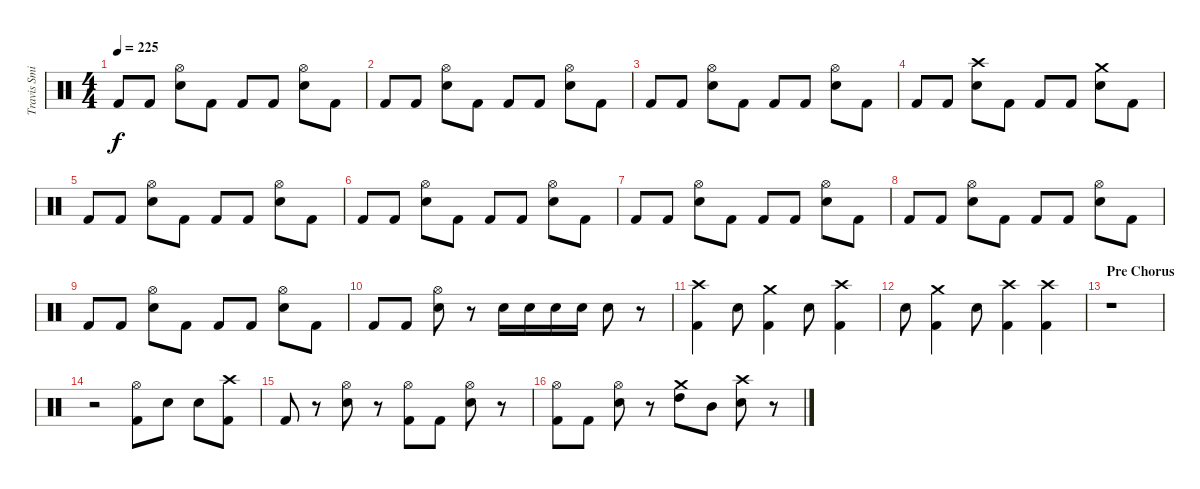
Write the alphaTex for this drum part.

\track ("Travis Smith" "Travis Smi") {instrument percussion}
\staff {score}
\articulation defaults
\ts (4 4)
\tempo 225
\clef neutral
\ks c "Kick (hit) 2".8{dy f} "Kick (hit) 2".8
("Hi-Hat (open)" "Electric Snare (hit)").8 "Kick (hit) 2".8 "Kick (hit) 2".8 "Kick (hit) 2".8 ("Hi-Hat (open)" "Electric Snare (hit)").8 "Kick (hit) 2".8 |
"Kick (hit) 2".8 "Kick (hit) 2".8 ("Hi-Hat (open)" "Electric Snare (hit)").8 "Kick (hit) 2".8 "Kick (hit) 2".8 "Kick (hit) 2".8 ("Hi-Hat (open)" "Electric Snare (hit)").8 "Kick (hit) 2".8 |
"Kick (hit) 2".8 "Kick (hit) 2".8 ("Hi-Hat (open)" "Electric Snare (hit)").8 "Kick (hit) 2".8 "Kick (hit) 2".8 "Kick (hit) 2".8 ("Hi-Hat (open)" "Electric Snare (hit)").8 "Kick (hit) 2".8 |
"Kick (hit) 2".8 "Kick (hit) 2".8 ("Crash high (hit)" "Electric Snare (hit)").8 "Kick (hit) 2".8 "Kick (hit) 2".8 "Kick (hit) 2".8 ("Crash medium (hit)" "Electric Snare (hit)").8 "Kick (hit) 2".8 |
"Kick (hit) 2".8 "Kick (hit) 2".8 ("Hi-Hat (open)" "Electric Snare (hit)").8 "Kick (hit) 2".8 "Kick (hit) 2".8 "Kick (hit) 2".8 ("Hi-Hat (open)" "Electric Snare (hit)").8 "Kick (hit) 2".8 |
"Kick (hit) 2".8 "Kick (hit) 2".8 ("Hi-Hat (open)" "Electric Snare (hit)").8 "Kick (hit) 2".8 "Kick (hit) 2".8 "Kick (hit) 2".8 ("Hi-Hat (open)" "Electric Snare (hit)").8 "Kick (hit) 2".8 |
"Kick (hit) 2".8 "Kick (hit) 2".8 ("Hi-Hat (open)" "Electric Snare (hit)").8 "Kick (hit) 2".8 "Kick (hit) 2".8 "Kick (hit) 2".8 ("Hi-Hat (open)" "Electric Snare (hit)").8 "Kick (hit) 2".8 |
"Kick (hit) 2".8 "Kick (hit) 2".8 ("Hi-Hat (open)" "Electric Snare (hit)").8 "Kick (hit) 2".8 "Kick (hit) 2".8 "Kick (hit) 2".8 ("Hi-Hat (open)" "Electric Snare (hit)").8 "Kick (hit) 2".8 |
"Kick (hit) 2".8 "Kick (hit) 2".8 ("Hi-Hat (open)" "Electric Snare (hit)").8 "Kick (hit) 2".8 "Kick (hit) 2".8 "Kick (hit) 2".8 ("Hi-Hat (open)" "Electric Snare (hit)").8 "Kick (hit) 2".8 |
"Kick (hit) 2".8 "Kick (hit) 2".8 ("Hi-Hat (open)" "Electric Snare (hit)").8 r.8 "Electric Snare (hit)".16 "Electric Snare (hit)".16 "Electric Snare (hit)".16 "Electric Snare (hit)".16 "Electric Snare (hit)".8 r.8 |
("Crash high (hit)" "Kick (hit) 2").4 "Electric Snare (hit)".8 ("Crash medium (hit)" "Kick (hit) 2").4 "Electric Snare (hit)".8 ("Crash high (hit)" "Kick (hit) 2").4 |
"Electric Snare (hit)".8 ("Crash medium (hit)" "Kick (hit) 2").4 "Electric Snare (hit)".8 ("Crash high (hit)" "Kick (hit) 2").4 ("Crash high (hit)" "Kick (hit) 2").4 |
\section ("" "Pre Chorus")
r.1 |
r.2 ("Hi-Hat (open)" "Kick (hit) 2").8 "Electric Snare (hit)".8 "Electric Snare (hit)".8 ("Crash high (hit)" "Kick (hit) 2").8 |
"Kick (hit) 2".8 r.8 ("Hi-Hat (open)" "Electric Snare (hit)").8 r.8 ("Hi-Hat (open)" "Kick (hit) 2").8 "Kick (hit) 2".8 ("Hi-Hat (open)" "Electric Snare (hit)").8 r.8 |
("Hi-Hat (open)" "Kick (hit) 2").8 "Kick (hit) 2".8 ("Hi-Hat (open)" "Electric Snare (hit)").8 r.8 ("Crash medium (hit)" "High Tom (hit)").8 "Mid Tom (hit)".8 ("Crash high (hit)" "Electric Snare (hit)").8 r.8
